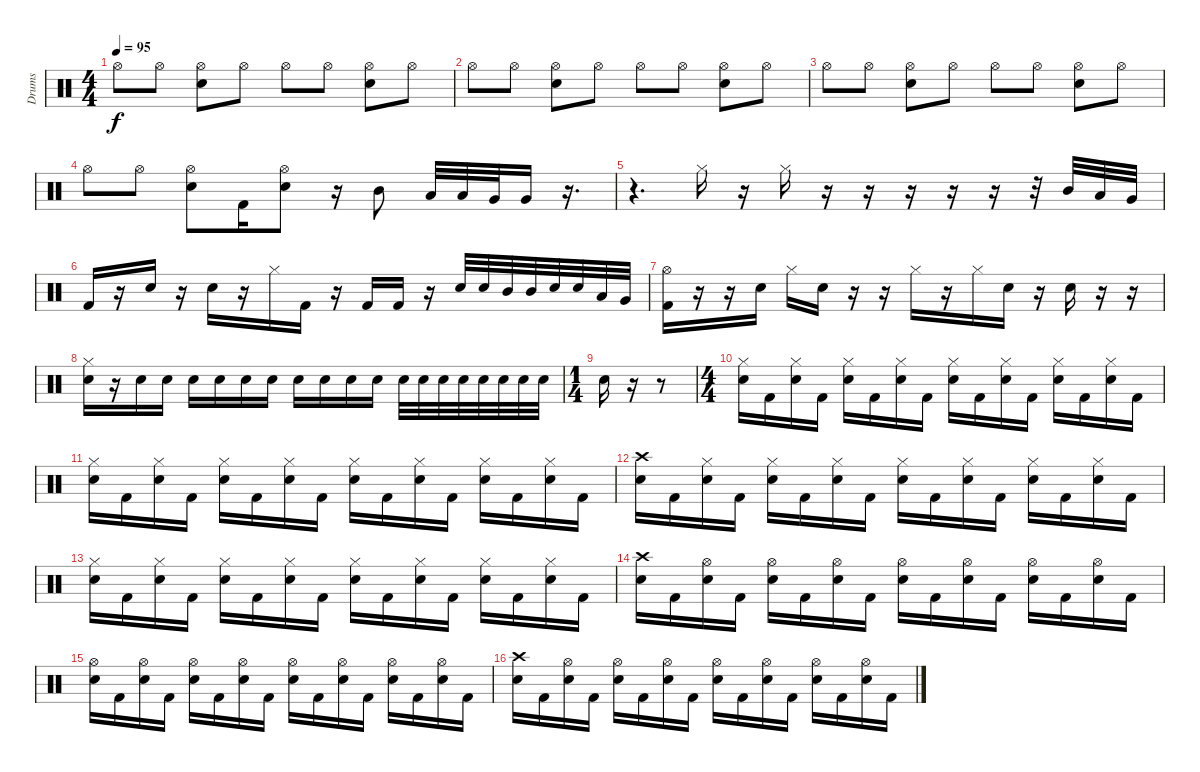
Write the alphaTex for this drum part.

\track ("Drums" "Drums") {instrument percussion}
\staff {score}
\articulation defaults
\ts (4 4)
\tempo 95
\clef neutral
\ks c "Hi-Hat (open)".8{dy f} "Hi-Hat (open)".8
("Hi-Hat (open)" "Electric Snare (hit)").8 "Hi-Hat (open)".8 "Hi-Hat (open)".8 "Hi-Hat (open)".8 ("Hi-Hat (open)" "Electric Snare (hit)").8 "Hi-Hat (open)".8 |
"Hi-Hat (open)".8 "Hi-Hat (open)".8 ("Hi-Hat (open)" "Electric Snare (hit)").8 "Hi-Hat (open)".8 "Hi-Hat (open)".8 "Hi-Hat (open)".8 ("Hi-Hat (open)" "Electric Snare (hit)").8 "Hi-Hat (open)".8 |
"Hi-Hat (open)".8 "Hi-Hat (open)".8 ("Hi-Hat (open)" "Electric Snare (hit)").8 "Hi-Hat (open)".8 "Hi-Hat (open)".8 "Hi-Hat (open)".8 ("Hi-Hat (open)" "Electric Snare (hit)").8 "Hi-Hat (open)".8 |
"Hi-Hat (open)".8 "Hi-Hat (open)".8 ("Hi-Hat (open)" "Electric Snare (hit)").8 "Kick (hit) 2".16 ("Hi-Hat (open)" "Electric Snare (hit)").8 r.16 "Mid Tom (hit)".8 "Low Tom (hit)".32 "Low Tom (hit)".32 "Very Low Tom (hit)".32 "Very Low Tom (hit)".16 r.16{d} |
r.4{d} "Hi-Hat (closed)".16 r.16 "Hi-Hat (closed)".16 r.16 r.16 r.16 r.16 r.16 r.32 "Mid Tom (hit)".32 "Low Tom (hit)".32 "Very Low Tom (hit)".32 |
"Kick (hit) 2".16 r.16 "Electric Snare (hit)".16 r.16 "Electric Snare (hit)".16 r.16 "Hi-Hat (closed)".16 "Kick (hit) 2".16 r.16 "Kick (hit) 2".16 "Kick (hit) 2".16 r.16 "Electric Snare (hit)".32 "Electric Snare (hit)".32 "Mid Tom (hit)".32 "Mid Tom (hit)".32 "Electric Snare (hit)".32 "Electric Snare (hit)".32 "Low Tom (hit)".32 "Very Low Tom (hit)".32 |
("Hi-Hat (open)" "Kick (hit) 2").16 r.16 r.16 "Electric Snare (hit)".16 "Hi-Hat (closed)".16 "Electric Snare (hit)".16 r.16 r.16 "Hi-Hat (closed)".16 r.16 "Hi-Hat (closed)".16 "Electric Snare (hit)".16 r.16 "Electric Snare (hit)".16 r.16 r.16 |
("Hi-Hat (closed)" "Electric Snare (hit)").16 r.16 "Electric Snare (hit)".16 "Electric Snare (hit)".16 "Electric Snare (hit)".16 "Electric Snare (hit)".16 "Electric Snare (hit)".16 "Electric Snare (hit)".16 "Electric Snare (hit)".16 "Electric Snare (hit)".16 "Electric Snare (hit)".16 "Electric Snare (hit)".16 "Electric Snare (hit)".32 "Electric Snare (hit)".32 "Electric Snare (hit)".32 "Electric Snare (hit)".32 "Electric Snare (hit)".32 "Electric Snare (hit)".32 "Electric Snare (hit)".32 "Electric Snare (hit)".32 |
\ts (1 4)
"Electric Snare (hit)".16 r.16 r.8 |
\ts (4 4)
("Hi-Hat (closed)" "Electric Snare (hit)").16 "Kick (hit) 2".16 ("Hi-Hat (closed)" "Electric Snare (hit)").16 "Kick (hit) 2".16 ("Hi-Hat (closed)" "Electric Snare (hit)").16 "Kick (hit) 2".16 ("Hi-Hat (closed)" "Electric Snare (hit)").16 "Kick (hit) 2".16 ("Hi-Hat (closed)" "Electric Snare (hit)").16 "Kick (hit) 2".16 ("Hi-Hat (closed)" "Electric Snare (hit)").16 "Kick (hit) 2".16 ("Hi-Hat (closed)" "Electric Snare (hit)").16 "Kick (hit) 2".16 ("Hi-Hat (closed)" "Electric Snare (hit)").16 "Kick (hit) 2".16 |
("Hi-Hat (closed)" "Electric Snare (hit)").16 "Kick (hit) 2".16 ("Hi-Hat (closed)" "Electric Snare (hit)").16 "Kick (hit) 2".16 ("Hi-Hat (closed)" "Electric Snare (hit)").16 "Kick (hit) 2".16 ("Hi-Hat (closed)" "Electric Snare (hit)").16 "Kick (hit) 2".16 ("Hi-Hat (closed)" "Electric Snare (hit)").16 "Kick (hit) 2".16 ("Hi-Hat (closed)" "Electric Snare (hit)").16 "Kick (hit) 2".16 ("Hi-Hat (closed)" "Electric Snare (hit)").16 "Kick (hit) 2".16 ("Hi-Hat (closed)" "Electric Snare (hit)").16 "Kick (hit) 2".16 |
("Crash high (hit)" "Electric Snare (hit)").16 "Kick (hit) 2".16 ("Hi-Hat (closed)" "Electric Snare (hit)").16 "Kick (hit) 2".16 ("Hi-Hat (closed)" "Electric Snare (hit)").16 "Kick (hit) 2".16 ("Hi-Hat (closed)" "Electric Snare (hit)").16 "Kick (hit) 2".16 ("Hi-Hat (closed)" "Electric Snare (hit)").16 "Kick (hit) 2".16 ("Hi-Hat (closed)" "Electric Snare (hit)").16 "Kick (hit) 2".16 ("Hi-Hat (closed)" "Electric Snare (hit)").16 "Kick (hit) 2".16 ("Hi-Hat (closed)" "Electric Snare (hit)").16 "Kick (hit) 2".16 |
("Hi-Hat (closed)" "Electric Snare (hit)").16 "Kick (hit) 2".16 ("Hi-Hat (closed)" "Electric Snare (hit)").16 "Kick (hit) 2".16 ("Hi-Hat (closed)" "Electric Snare (hit)").16 "Kick (hit) 2".16 ("Hi-Hat (closed)" "Electric Snare (hit)").16 "Kick (hit) 2".16 ("Hi-Hat (closed)" "Electric Snare (hit)").16 "Kick (hit) 2".16 ("Hi-Hat (closed)" "Electric Snare (hit)").16 "Kick (hit) 2".16 ("Hi-Hat (closed)" "Electric Snare (hit)").16 "Kick (hit) 2".16 ("Hi-Hat (closed)" "Electric Snare (hit)").16 "Kick (hit) 2".16 |
("Crash high (hit)" "Electric Snare (hit)").16 "Kick (hit) 2".16 ("Hi-Hat (open)" "Electric Snare (hit)").16 "Kick (hit) 2".16 ("Hi-Hat (open)" "Electric Snare (hit)").16 "Kick (hit) 2".16 ("Hi-Hat (open)" "Electric Snare (hit)").16 "Kick (hit) 2".16 ("Hi-Hat (open)" "Electric Snare (hit)").16 "Kick (hit) 2".16 ("Hi-Hat (open)" "Electric Snare (hit)").16 "Kick (hit) 2".16 ("Hi-Hat (open)" "Electric Snare (hit)").16 "Kick (hit) 2".16 ("Hi-Hat (open)" "Electric Snare (hit)").16 "Kick (hit) 2".16 |
("Hi-Hat (open)" "Electric Snare (hit)").16 "Kick (hit) 2".16 ("Hi-Hat (open)" "Electric Snare (hit)").16 "Kick (hit) 2".16 ("Hi-Hat (open)" "Electric Snare (hit)").16 "Kick (hit) 2".16 ("Hi-Hat (open)" "Electric Snare (hit)").16 "Kick (hit) 2".16 ("Hi-Hat (open)" "Electric Snare (hit)").16 "Kick (hit) 2".16 ("Hi-Hat (open)" "Electric Snare (hit)").16 "Kick (hit) 2".16 ("Hi-Hat (open)" "Electric Snare (hit)").16 "Kick (hit) 2".16 ("Hi-Hat (open)" "Electric Snare (hit)").16 "Kick (hit) 2".16 |
("Crash high (hit)" "Electric Snare (hit)").16 "Kick (hit) 2".16 ("Hi-Hat (open)" "Electric Snare (hit)").16 "Kick (hit) 2".16 ("Hi-Hat (open)" "Electric Snare (hit)").16 "Kick (hit) 2".16 ("Hi-Hat (open)" "Electric Snare (hit)").16 "Kick (hit) 2".16 ("Hi-Hat (open)" "Electric Snare (hit)").16 "Kick (hit) 2".16 ("Hi-Hat (open)" "Electric Snare (hit)").16 "Kick (hit) 2".16 ("Hi-Hat (open)" "Electric Snare (hit)").16 "Kick (hit) 2".16 ("Hi-Hat (open)" "Electric Snare (hit)").16 "Kick (hit) 2".16
